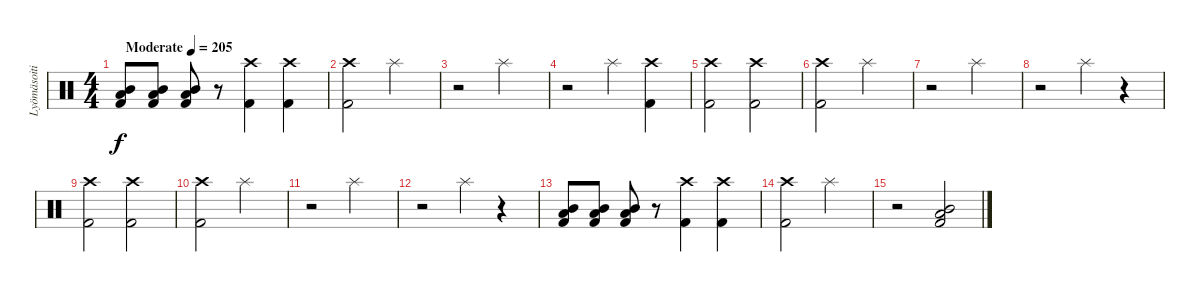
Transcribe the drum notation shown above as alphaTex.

\track ("Lyömäsoitin" "Lyömäsoiti") {instrument percussion}
\staff {score}
\articulation defaults
\ts (4 4)
\tempo (205 "Moderate")
\clef neutral
\ks c
("Kick (hit) 2" "Low Tom (hit)" "Mid Tom (hit)").8{dy f} ("Kick (hit) 2" "Low Tom (hit)" "Mid Tom (hit)").8 ("Kick (hit) 2" "Low Tom (hit)" "Mid Tom (hit)").8 r.8 ("Kick (hit) 2" "Crash high (hit)").4 ("Kick (hit) 2" "Crash high (hit)").4 |
("Kick (hit) 2" "Crash high (hit)").2 "Splash (hit)".2 |
r.2 "Splash (hit)".2 |
r.2 "Splash (hit)".4 ("Kick (hit) 2" "Crash high (hit)").4 |
("Kick (hit) 2" "Crash high (hit)").2 ("Kick (hit) 2" "Crash high (hit)").2 |
("Kick (hit) 2" "Crash high (hit)").2 "Splash (hit)".2 |
r.2 "Splash (hit)".2 |
r.2 "Splash (hit)".4 r.4 |
("Kick (hit) 2" "Crash high (hit)").2 ("Kick (hit) 2" "Crash high (hit)").2 |
("Kick (hit) 2" "Crash high (hit)").2 "Splash (hit)".2 |
r.2 "Splash (hit)".2 |
r.2 "Splash (hit)".4 r.4 |
("Kick (hit) 2" "Low Tom (hit)" "Mid Tom (hit)").8 ("Kick (hit) 2" "Low Tom (hit)" "Mid Tom (hit)").8 ("Kick (hit) 2" "Low Tom (hit)" "Mid Tom (hit)").8 r.8 ("Kick (hit) 2" "Crash high (hit)").4 ("Kick (hit) 2" "Crash high (hit)").4 |
("Kick (hit) 2" "Crash high (hit)").2 "Splash (hit)".2 |
r.2 ("Kick (hit) 2" "Low Tom (hit)" "Mid Tom (hit)").2
